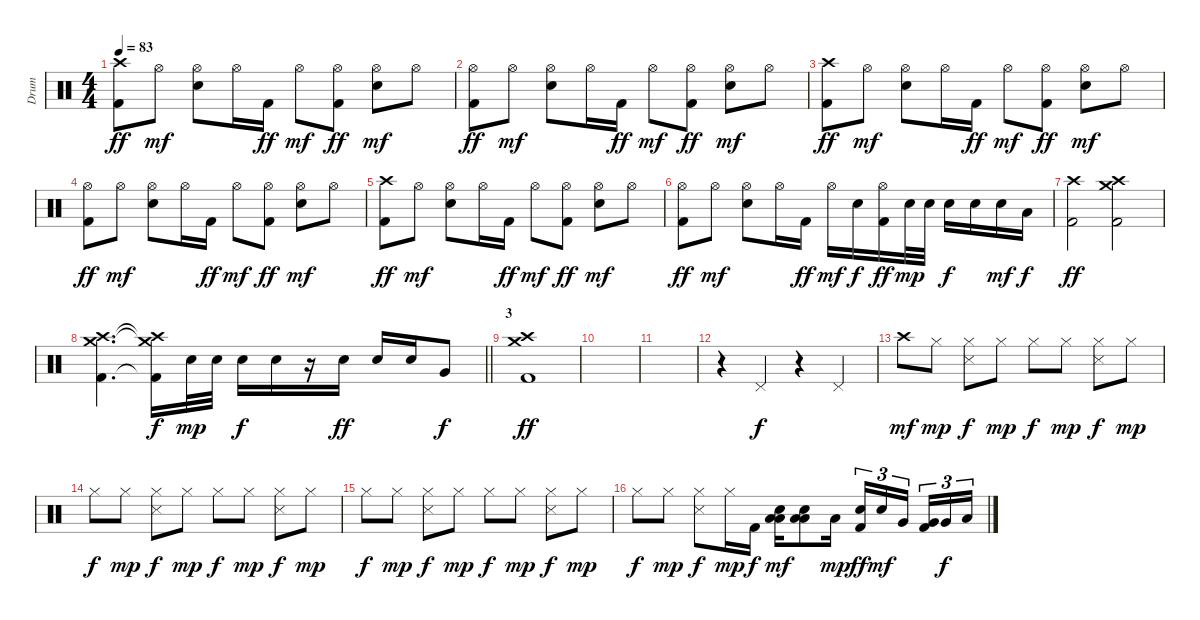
\track ("Drum" "Drum") {instrument percussion}
\staff {score}
\articulation defaults
\ts (4 4)
\tempo 83
\clef neutral
\ks c
("Crash high (hit)" "Kick (hit) 2").8{dy ff} "Hi-Hat (open)".8{dy mf} ("Electric Snare (hit)" "Hi-Hat (open)").8 "Hi-Hat (open)".16 "Kick (hit) 2".16{dy ff} "Hi-Hat (open)".8{dy mf} ("Hi-Hat (open)" "Kick (hit) 2").8{dy ff} ("Electric Snare (hit)" "Hi-Hat (open)").8{dy mf} "Hi-Hat (open)".8 |
("Hi-Hat (open)" "Kick (hit) 2").8{dy ff} "Hi-Hat (open)".8{dy mf} ("Electric Snare (hit)" "Hi-Hat (open)").8 "Hi-Hat (open)".16 "Kick (hit) 2".16{dy ff} "Hi-Hat (open)".8{dy mf} ("Hi-Hat (open)" "Kick (hit) 2").8{dy ff} ("Electric Snare (hit)" "Hi-Hat (open)").8{dy mf} "Hi-Hat (open)".8 |
("Crash high (hit)" "Kick (hit) 2").8{dy ff} "Hi-Hat (open)".8{dy mf} ("Electric Snare (hit)" "Hi-Hat (open)").8 "Hi-Hat (open)".16 "Kick (hit) 2".16{dy ff} "Hi-Hat (open)".8{dy mf} ("Hi-Hat (open)" "Kick (hit) 2").8{dy ff} ("Electric Snare (hit)" "Hi-Hat (open)").8{dy mf} "Hi-Hat (open)".8 |
("Hi-Hat (open)" "Kick (hit) 2").8{dy ff} "Hi-Hat (open)".8{dy mf} ("Electric Snare (hit)" "Hi-Hat (open)").8 "Hi-Hat (open)".16 "Kick (hit) 2".16{dy ff} "Hi-Hat (open)".8{dy mf} ("Hi-Hat (open)" "Kick (hit) 2").8{dy ff} ("Electric Snare (hit)" "Hi-Hat (open)").8{dy mf} "Hi-Hat (open)".8 |
("Crash high (hit)" "Kick (hit) 2").8{dy ff} "Hi-Hat (open)".8{dy mf} ("Electric Snare (hit)" "Hi-Hat (open)").8 "Hi-Hat (open)".16 "Kick (hit) 2".16{dy ff} "Hi-Hat (open)".8{dy mf} ("Hi-Hat (open)" "Kick (hit) 2").8{dy ff} ("Electric Snare (hit)" "Hi-Hat (open)").8{dy mf} "Hi-Hat (open)".8 |
("Hi-Hat (open)" "Kick (hit) 2").8{dy ff} "Hi-Hat (open)".8{dy mf} ("Electric Snare (hit)" "Hi-Hat (open)").8 "Hi-Hat (open)".16 "Kick (hit) 2".16{dy ff} "Hi-Hat (open)".16{dy mf} "Electric Snare (hit)".16{dy f} ("Hi-Hat (open)" "Kick (hit) 2").16{dy ff} "Electric Snare (hit)".32{dy mp} "Electric Snare (hit)".32 "Electric Snare (hit)".16{dy f} "Electric Snare (hit)".16 "Electric Snare (hit)".16{dy mf} "Low Tom (hit)".16{dy f} |
("Crash high (hit)" "Kick (hit) 2").2{dy ff} ("Crash medium (hit)" "Crash high (hit)" "Kick (hit) 2").2 |
\barLineRight lightlight
("Crash medium (hit)" "Crash high (hit)" "Kick (hit) 2").4{d} ("Crash medium (hit)"{t} "Crash high (hit)"{t} "Kick (hit) 2"{t}).16{dy f} "Electric Snare (hit)".32{dy mp} "Electric Snare (hit)".32 "Electric Snare (hit)".16{dy f} "Electric Snare (hit)".16 r.16 "Electric Snare (hit)".16{dy ff} "Electric Snare (hit)".16 "Electric Snare (hit)".16 "Very Low Tom (hit)".8{dy f} |
\section ("" "3")
("Crash medium (hit)" "Crash high (hit)" "Kick (hit) 2").1{dy ff} |
|
|
r.4 "Pedal Hi-Hat (hit)".4{dy f} r.4 "Pedal Hi-Hat (hit)".4 |
"Crash high (hit)".8{dy mf} "Hi-Hat (closed)".8{dy mp} ("Hi-Hat (closed)" "Snare (side stick) 3").8{dy f} "Hi-Hat (closed)".8{dy mp} "Hi-Hat (closed)".8{dy f} "Hi-Hat (closed)".8{dy mp} ("Hi-Hat (closed)" "Snare (side stick) 3").8{dy f} "Hi-Hat (closed)".8{dy mp} |
"Hi-Hat (closed)".8{dy f} "Hi-Hat (closed)".8{dy mp} ("Hi-Hat (closed)" "Snare (side stick) 3").8{dy f} "Hi-Hat (closed)".8{dy mp} "Hi-Hat (closed)".8{dy f} "Hi-Hat (closed)".8{dy mp} ("Hi-Hat (closed)" "Snare (side stick) 3").8{dy f} "Hi-Hat (closed)".8{dy mp} |
"Hi-Hat (closed)".8{dy f} "Hi-Hat (closed)".8{dy mp} ("Hi-Hat (closed)" "Snare (side stick) 3").8{dy f} "Hi-Hat (closed)".8{dy mp} "Hi-Hat (closed)".8{dy f} "Hi-Hat (closed)".8{dy mp} ("Hi-Hat (closed)" "Snare (side stick) 3").8{dy f} "Hi-Hat (closed)".8{dy mp} |
"Hi-Hat (closed)".8{dy f} "Hi-Hat (closed)".8{dy mp} ("Hi-Hat (closed)" "Snare (side stick) 3").8{dy f} "Hi-Hat (closed)".16{dy mp} "Kick (hit) 2".16{dy f} ("Low Tom (hit)" "Electric Snare (hit)" "Low Floor Tom (hit)").16{dy mf} ("Low Tom (hit)" "Electric Snare (hit)" "Low Floor Tom (hit)").8 "Low Floor Tom (hit)".16{dy mp} ("Electric Snare (hit)" "Kick (hit) 2").16{tu (3 2) dy ff} "Electric Snare (hit)".16{tu (3 2) dy mf} "Very Low Tom (hit)".16{tu (3 2) beam splitsecondary} ("Very Low Tom (hit)" "Kick (hit) 2").16{tu (3 2)} "Very Low Tom (hit)".16{tu (3 2) dy f} "Low Tom (hit)".16{tu (3 2)}
